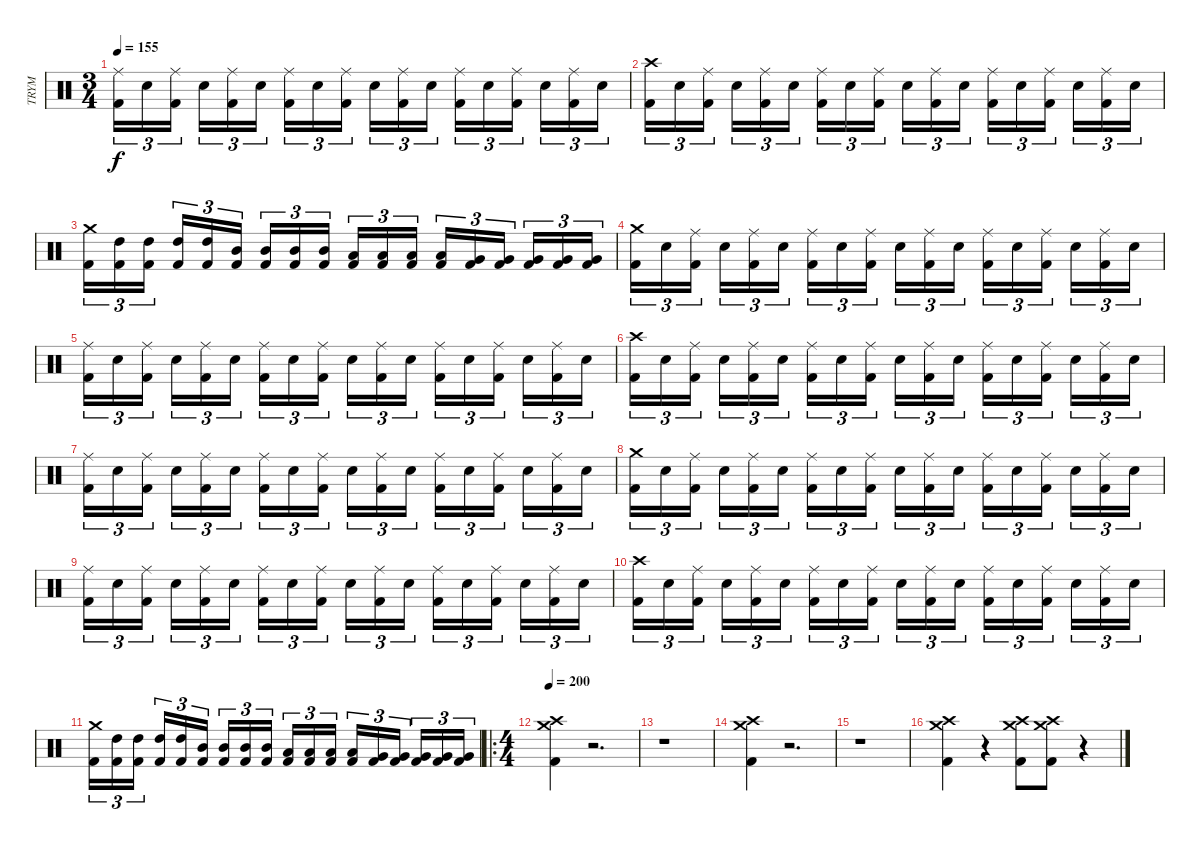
\track ("TRYM" "TRYM") {instrument percussion}
\staff {score}
\articulation defaults
\ts (3 4)
\tempo 155
\clef neutral
\ks c
("Kick (hit) 2" "Ride (middle)").16{tu (3 2) dy f} "Electric Snare (hit)".16{tu (3 2)} ("Kick (hit) 2" "Ride (middle)").16{tu (3 2) beam splitsecondary} "Electric Snare (hit)".16{tu (3 2)} ("Kick (hit) 2" "Ride (middle)").16{tu (3 2)} "Electric Snare (hit)".16{tu (3 2)} ("Kick (hit) 2" "Ride (middle)").16{tu (3 2)} "Electric Snare (hit)".16{tu (3 2)} ("Kick (hit) 2" "Ride (middle)").16{tu (3 2) beam splitsecondary} "Electric Snare (hit)".16{tu (3 2)} ("Kick (hit) 2" "Ride (middle)").16{tu (3 2)} "Electric Snare (hit)".16{tu (3 2)} ("Kick (hit) 2" "Ride (middle)").16{tu (3 2)} "Electric Snare (hit)".16{tu (3 2)} ("Kick (hit) 2" "Ride (middle)").16{tu (3 2) beam splitsecondary} "Electric Snare (hit)".16{tu (3 2)} ("Kick (hit) 2" "Ride (middle)").16{tu (3 2)} "Electric Snare (hit)".16{tu (3 2)} |
("Kick (hit) 2" "Crash high (hit)").16{tu (3 2)} "Electric Snare (hit)".16{tu (3 2)} ("Kick (hit) 2" "Ride (middle)").16{tu (3 2) beam splitsecondary} "Electric Snare (hit)".16{tu (3 2)} ("Kick (hit) 2" "Ride (middle)").16{tu (3 2)} "Electric Snare (hit)".16{tu (3 2)} ("Kick (hit) 2" "Ride (middle)").16{tu (3 2)} "Electric Snare (hit)".16{tu (3 2)} ("Kick (hit) 2" "Ride (middle)").16{tu (3 2) beam splitsecondary} "Electric Snare (hit)".16{tu (3 2)} ("Kick (hit) 2" "Ride (middle)").16{tu (3 2)} "Electric Snare (hit)".16{tu (3 2)} ("Kick (hit) 2" "Ride (middle)").16{tu (3 2)} "Electric Snare (hit)".16{tu (3 2)} ("Kick (hit) 2" "Ride (middle)").16{tu (3 2) beam splitsecondary} "Electric Snare (hit)".16{tu (3 2)} ("Kick (hit) 2" "Ride (middle)").16{tu (3 2)} "Electric Snare (hit)".16{tu (3 2)} |
("Kick (hit) 2" "Crash medium (hit)").16{tu (3 2)} ("Kick (hit) 2" "High Tom (hit)").16{tu (3 2)} ("Kick (hit) 2" "High Tom (hit)").16{tu (3 2) beam splitsecondary} ("Kick (hit) 2" "High Tom (hit)").16{tu (3 2)} ("Kick (hit) 2" "High Tom (hit)").16{tu (3 2)} ("Kick (hit) 2" "Mid Tom (hit)").16{tu (3 2)} ("Kick (hit) 2" "Mid Tom (hit)").16{tu (3 2)} ("Kick (hit) 2" "Mid Tom (hit)").16{tu (3 2)} ("Kick (hit) 2" "Mid Tom (hit)").16{tu (3 2) beam splitsecondary} ("Kick (hit) 2" "Low Tom (hit)").16{tu (3 2)} ("Kick (hit) 2" "Low Tom (hit)").16{tu (3 2)} ("Kick (hit) 2" "Low Tom (hit)").16{tu (3 2)} ("Kick (hit) 2" "Low Tom (hit)").16{tu (3 2)} ("Kick (hit) 2" "Very Low Tom (hit)").16{tu (3 2)} ("Kick (hit) 2" "Very Low Tom (hit)").16{tu (3 2) beam splitsecondary} ("Kick (hit) 2" "Very Low Tom (hit)").16{tu (3 2)} ("Kick (hit) 2" "Very Low Tom (hit)").16{tu (3 2)} ("Kick (hit) 2" "Very Low Tom (hit)").16{tu (3 2)} |
("Kick (hit) 2" "Crash medium (hit)").16{tu (3 2)} "Electric Snare (hit)".16{tu (3 2)} ("Kick (hit) 2" "Ride (middle)").16{tu (3 2) beam splitsecondary} "Electric Snare (hit)".16{tu (3 2)} ("Kick (hit) 2" "Ride (middle)").16{tu (3 2)} "Electric Snare (hit)".16{tu (3 2)} ("Kick (hit) 2" "Ride (middle)").16{tu (3 2)} "Electric Snare (hit)".16{tu (3 2)} ("Kick (hit) 2" "Ride (middle)").16{tu (3 2) beam splitsecondary} "Electric Snare (hit)".16{tu (3 2)} ("Kick (hit) 2" "Ride (middle)").16{tu (3 2)} "Electric Snare (hit)".16{tu (3 2)} ("Kick (hit) 2" "Ride (middle)").16{tu (3 2)} "Electric Snare (hit)".16{tu (3 2)} ("Kick (hit) 2" "Ride (middle)").16{tu (3 2) beam splitsecondary} "Electric Snare (hit)".16{tu (3 2)} ("Kick (hit) 2" "Ride (middle)").16{tu (3 2)} "Electric Snare (hit)".16{tu (3 2)} |
("Kick (hit) 2" "Ride (middle)").16{tu (3 2)} "Electric Snare (hit)".16{tu (3 2)} ("Kick (hit) 2" "Ride (middle)").16{tu (3 2) beam splitsecondary} "Electric Snare (hit)".16{tu (3 2)} ("Kick (hit) 2" "Ride (middle)").16{tu (3 2)} "Electric Snare (hit)".16{tu (3 2)} ("Kick (hit) 2" "Ride (middle)").16{tu (3 2)} "Electric Snare (hit)".16{tu (3 2)} ("Kick (hit) 2" "Ride (middle)").16{tu (3 2) beam splitsecondary} "Electric Snare (hit)".16{tu (3 2)} ("Kick (hit) 2" "Ride (middle)").16{tu (3 2)} "Electric Snare (hit)".16{tu (3 2)} ("Kick (hit) 2" "Ride (middle)").16{tu (3 2)} "Electric Snare (hit)".16{tu (3 2)} ("Kick (hit) 2" "Ride (middle)").16{tu (3 2) beam splitsecondary} "Electric Snare (hit)".16{tu (3 2)} ("Kick (hit) 2" "Ride (middle)").16{tu (3 2)} "Electric Snare (hit)".16{tu (3 2)} |
("Kick (hit) 2" "Crash high (hit)").16{tu (3 2)} "Electric Snare (hit)".16{tu (3 2)} ("Kick (hit) 2" "Ride (middle)").16{tu (3 2) beam splitsecondary} "Electric Snare (hit)".16{tu (3 2)} ("Kick (hit) 2" "Ride (middle)").16{tu (3 2)} "Electric Snare (hit)".16{tu (3 2)} ("Kick (hit) 2" "Ride (middle)").16{tu (3 2)} "Electric Snare (hit)".16{tu (3 2)} ("Kick (hit) 2" "Ride (middle)").16{tu (3 2) beam splitsecondary} "Electric Snare (hit)".16{tu (3 2)} ("Kick (hit) 2" "Ride (middle)").16{tu (3 2)} "Electric Snare (hit)".16{tu (3 2)} ("Kick (hit) 2" "Ride (middle)").16{tu (3 2)} "Electric Snare (hit)".16{tu (3 2)} ("Kick (hit) 2" "Ride (middle)").16{tu (3 2) beam splitsecondary} "Electric Snare (hit)".16{tu (3 2)} ("Kick (hit) 2" "Ride (middle)").16{tu (3 2)} "Electric Snare (hit)".16{tu (3 2)} |
("Kick (hit) 2" "Ride (middle)").16{tu (3 2)} "Electric Snare (hit)".16{tu (3 2)} ("Kick (hit) 2" "Ride (middle)").16{tu (3 2) beam splitsecondary} "Electric Snare (hit)".16{tu (3 2)} ("Kick (hit) 2" "Ride (middle)").16{tu (3 2)} "Electric Snare (hit)".16{tu (3 2)} ("Kick (hit) 2" "Ride (middle)").16{tu (3 2)} "Electric Snare (hit)".16{tu (3 2)} ("Kick (hit) 2" "Ride (middle)").16{tu (3 2) beam splitsecondary} "Electric Snare (hit)".16{tu (3 2)} ("Kick (hit) 2" "Ride (middle)").16{tu (3 2)} "Electric Snare (hit)".16{tu (3 2)} ("Kick (hit) 2" "Ride (middle)").16{tu (3 2)} "Electric Snare (hit)".16{tu (3 2)} ("Kick (hit) 2" "Ride (middle)").16{tu (3 2) beam splitsecondary} "Electric Snare (hit)".16{tu (3 2)} ("Kick (hit) 2" "Ride (middle)").16{tu (3 2)} "Electric Snare (hit)".16{tu (3 2)} |
("Kick (hit) 2" "Crash medium (hit)").16{tu (3 2)} "Electric Snare (hit)".16{tu (3 2)} ("Kick (hit) 2" "Ride (middle)").16{tu (3 2) beam splitsecondary} "Electric Snare (hit)".16{tu (3 2)} ("Kick (hit) 2" "Ride (middle)").16{tu (3 2)} "Electric Snare (hit)".16{tu (3 2)} ("Kick (hit) 2" "Ride (middle)").16{tu (3 2)} "Electric Snare (hit)".16{tu (3 2)} ("Kick (hit) 2" "Ride (middle)").16{tu (3 2) beam splitsecondary} "Electric Snare (hit)".16{tu (3 2)} ("Kick (hit) 2" "Ride (middle)").16{tu (3 2)} "Electric Snare (hit)".16{tu (3 2)} ("Kick (hit) 2" "Ride (middle)").16{tu (3 2)} "Electric Snare (hit)".16{tu (3 2)} ("Kick (hit) 2" "Ride (middle)").16{tu (3 2) beam splitsecondary} "Electric Snare (hit)".16{tu (3 2)} ("Kick (hit) 2" "Ride (middle)").16{tu (3 2)} "Electric Snare (hit)".16{tu (3 2)} |
("Kick (hit) 2" "Ride (middle)").16{tu (3 2)} "Electric Snare (hit)".16{tu (3 2)} ("Kick (hit) 2" "Ride (middle)").16{tu (3 2) beam splitsecondary} "Electric Snare (hit)".16{tu (3 2)} ("Kick (hit) 2" "Ride (middle)").16{tu (3 2)} "Electric Snare (hit)".16{tu (3 2)} ("Kick (hit) 2" "Ride (middle)").16{tu (3 2)} "Electric Snare (hit)".16{tu (3 2)} ("Kick (hit) 2" "Ride (middle)").16{tu (3 2) beam splitsecondary} "Electric Snare (hit)".16{tu (3 2)} ("Kick (hit) 2" "Ride (middle)").16{tu (3 2)} "Electric Snare (hit)".16{tu (3 2)} ("Kick (hit) 2" "Ride (middle)").16{tu (3 2)} "Electric Snare (hit)".16{tu (3 2)} ("Kick (hit) 2" "Ride (middle)").16{tu (3 2) beam splitsecondary} "Electric Snare (hit)".16{tu (3 2)} ("Kick (hit) 2" "Ride (middle)").16{tu (3 2)} "Electric Snare (hit)".16{tu (3 2)} |
("Kick (hit) 2" "Crash high (hit)").16{tu (3 2)} "Electric Snare (hit)".16{tu (3 2)} ("Kick (hit) 2" "Ride (middle)").16{tu (3 2) beam splitsecondary} "Electric Snare (hit)".16{tu (3 2)} ("Kick (hit) 2" "Ride (middle)").16{tu (3 2)} "Electric Snare (hit)".16{tu (3 2)} ("Kick (hit) 2" "Ride (middle)").16{tu (3 2)} "Electric Snare (hit)".16{tu (3 2)} ("Kick (hit) 2" "Ride (middle)").16{tu (3 2) beam splitsecondary} "Electric Snare (hit)".16{tu (3 2)} ("Kick (hit) 2" "Ride (middle)").16{tu (3 2)} "Electric Snare (hit)".16{tu (3 2)} ("Kick (hit) 2" "Ride (middle)").16{tu (3 2)} "Electric Snare (hit)".16{tu (3 2)} ("Kick (hit) 2" "Ride (middle)").16{tu (3 2) beam splitsecondary} "Electric Snare (hit)".16{tu (3 2)} ("Kick (hit) 2" "Ride (middle)").16{tu (3 2)} "Electric Snare (hit)".16{tu (3 2)} |
("Kick (hit) 2" "Crash medium (hit)").16{tu (3 2)} ("Kick (hit) 2" "High Tom (hit)").16{tu (3 2)} ("Kick (hit) 2" "High Tom (hit)").16{tu (3 2) beam splitsecondary} ("Kick (hit) 2" "High Tom (hit)").16{tu (3 2)} ("Kick (hit) 2" "High Tom (hit)").16{tu (3 2)} ("Kick (hit) 2" "Mid Tom (hit)").16{tu (3 2)} ("Kick (hit) 2" "Mid Tom (hit)").16{tu (3 2)} ("Kick (hit) 2" "Mid Tom (hit)").16{tu (3 2)} ("Kick (hit) 2" "Mid Tom (hit)").16{tu (3 2) beam splitsecondary} ("Kick (hit) 2" "Low Tom (hit)").16{tu (3 2)} ("Kick (hit) 2" "Low Tom (hit)").16{tu (3 2)} ("Kick (hit) 2" "Low Tom (hit)").16{tu (3 2)} ("Kick (hit) 2" "Low Tom (hit)").16{tu (3 2)} ("Kick (hit) 2" "Very Low Tom (hit)").16{tu (3 2)} ("Kick (hit) 2" "Very Low Tom (hit)").16{tu (3 2) beam splitsecondary} ("Kick (hit) 2" "Very Low Tom (hit)").16{tu (3 2)} ("Kick (hit) 2" "Very Low Tom (hit)").16{tu (3 2)} ("Kick (hit) 2" "Very Low Tom (hit)").16{tu (3 2)} |
\ro
\ts (4 4)
\tempo 200
("Kick (hit) 2" "Crash medium (hit)" "Crash high (hit)").4 r.2{d} |
r.1 |
("Kick (hit) 2" "Crash medium (hit)" "Crash high (hit)").4 r.2{d} |
r.1 |
("Kick (hit) 2" "Crash medium (hit)" "Crash high (hit)").4 r.4 ("Kick (hit) 2" "Crash medium (hit)" "Crash high (hit)").8 ("Kick (hit) 2" "Crash medium (hit)" "Crash high (hit)").8 r.4
